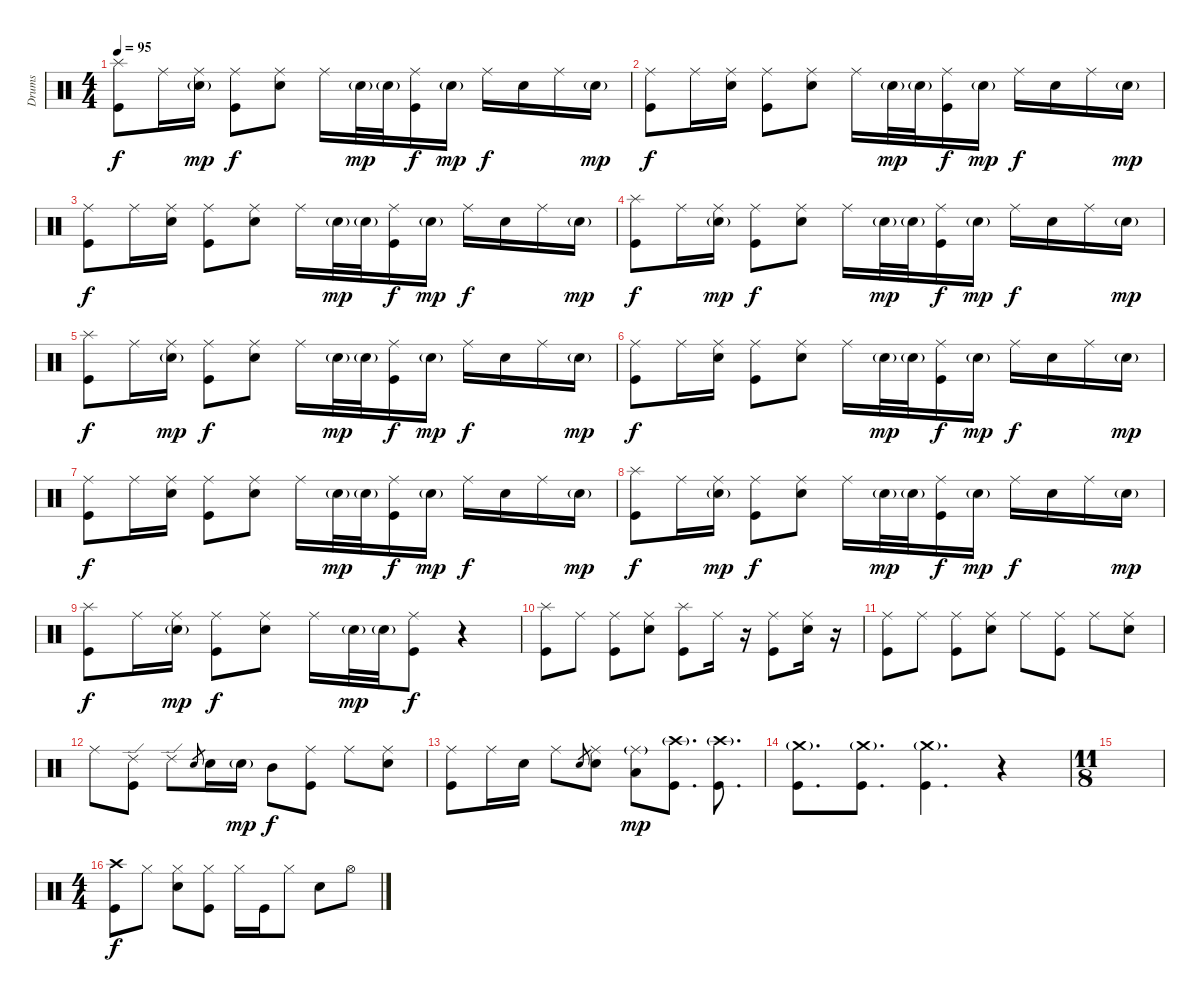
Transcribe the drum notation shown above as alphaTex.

\track ("Drums" "Drums") {instrument percussion}
\staff {score}
\articulation defaults
\ts (4 4)
\tempo 95
\clef neutral
\ks c
("Splash (hit)" "Kick (hit)").8{dy f} "Ride (middle)".16 ("Ride (middle)" "Electric Snare (hit)"{g}).16{dy mp} ("Ride (middle)" "Kick (hit)").8{dy f} ("Ride (middle)" "Electric Snare (hit)").8 "Ride (middle)".16 "Electric Snare (hit)"{g}.32{dy mp} "Electric Snare (hit)"{g}.32 ("Ride (middle)" "Kick (hit)").16{dy f} "Electric Snare (hit)"{g}.16{dy mp} "Ride (middle)".16{dy f} "Electric Snare (hit)".16 "Ride (middle)".16 "Electric Snare (hit)"{g}.16{dy mp} |
("Ride (middle)" "Kick (hit)").8{dy f} "Ride (middle)".16 ("Ride (middle)" "Electric Snare (hit)").16 ("Ride (middle)" "Kick (hit)").8 ("Ride (middle)" "Electric Snare (hit)").8 "Ride (middle)".16 "Electric Snare (hit)"{g}.32{dy mp} "Electric Snare (hit)"{g}.32 ("Ride (middle)" "Kick (hit)").16{dy f} "Electric Snare (hit)"{g}.16{dy mp} "Ride (middle)".16{dy f} "Electric Snare (hit)".16 "Ride (middle)".16 "Electric Snare (hit)"{g}.16{dy mp} |
("Ride (middle)" "Kick (hit)").8{dy f} "Ride (middle)".16 ("Ride (middle)" "Electric Snare (hit)").16 ("Ride (middle)" "Kick (hit)").8 ("Ride (middle)" "Electric Snare (hit)").8 "Ride (middle)".16 "Electric Snare (hit)"{g}.32{dy mp} "Electric Snare (hit)"{g}.32 ("Ride (middle)" "Kick (hit)").16{dy f} "Electric Snare (hit)"{g}.16{dy mp} "Ride (middle)".16{dy f} "Electric Snare (hit)".16 "Ride (middle)".16 "Electric Snare (hit)"{g}.16{dy mp} |
("Splash (hit)" "Kick (hit)").8{dy f} "Ride (middle)".16 ("Ride (middle)" "Electric Snare (hit)"{g}).16{dy mp} ("Ride (middle)" "Kick (hit)").8{dy f} ("Ride (middle)" "Electric Snare (hit)").8 "Ride (middle)".16 "Electric Snare (hit)"{g}.32{dy mp} "Electric Snare (hit)"{g}.32 ("Ride (middle)" "Kick (hit)").16{dy f} "Electric Snare (hit)"{g}.16{dy mp} "Ride (middle)".16{dy f} "Electric Snare (hit)".16 "Ride (middle)".16 "Electric Snare (hit)"{g}.16{dy mp} |
("Splash (hit)" "Kick (hit)").8{dy f} "Ride (middle)".16 ("Ride (middle)" "Electric Snare (hit)"{g}).16{dy mp} ("Ride (middle)" "Kick (hit)").8{dy f} ("Ride (middle)" "Electric Snare (hit)").8 "Ride (middle)".16 "Electric Snare (hit)"{g}.32{dy mp} "Electric Snare (hit)"{g}.32 ("Ride (middle)" "Kick (hit)").16{dy f} "Electric Snare (hit)"{g}.16{dy mp} "Ride (middle)".16{dy f} "Electric Snare (hit)".16 "Ride (middle)".16 "Electric Snare (hit)"{g}.16{dy mp} |
("Ride (middle)" "Kick (hit)").8{dy f} "Ride (middle)".16 ("Ride (middle)" "Electric Snare (hit)").16 ("Ride (middle)" "Kick (hit)").8 ("Ride (middle)" "Electric Snare (hit)").8 "Ride (middle)".16 "Electric Snare (hit)"{g}.32{dy mp} "Electric Snare (hit)"{g}.32 ("Ride (middle)" "Kick (hit)").16{dy f} "Electric Snare (hit)"{g}.16{dy mp} "Ride (middle)".16{dy f} "Electric Snare (hit)".16 "Ride (middle)".16 "Electric Snare (hit)"{g}.16{dy mp} |
("Ride (middle)" "Kick (hit)").8{dy f} "Ride (middle)".16 ("Ride (middle)" "Electric Snare (hit)").16 ("Ride (middle)" "Kick (hit)").8 ("Ride (middle)" "Electric Snare (hit)").8 "Ride (middle)".16 "Electric Snare (hit)"{g}.32{dy mp} "Electric Snare (hit)"{g}.32 ("Ride (middle)" "Kick (hit)").16{dy f} "Electric Snare (hit)"{g}.16{dy mp} "Ride (middle)".16{dy f} "Electric Snare (hit)".16 "Ride (middle)".16 "Electric Snare (hit)"{g}.16{dy mp} |
("Splash (hit)" "Kick (hit)").8{dy f} "Ride (middle)".16 ("Ride (middle)" "Electric Snare (hit)"{g}).16{dy mp} ("Ride (middle)" "Kick (hit)").8{dy f} ("Ride (middle)" "Electric Snare (hit)").8 "Ride (middle)".16 "Electric Snare (hit)"{g}.32{dy mp} "Electric Snare (hit)"{g}.32 ("Ride (middle)" "Kick (hit)").16{dy f} "Electric Snare (hit)"{g}.16{dy mp} "Ride (middle)".16{dy f} "Electric Snare (hit)".16 "Ride (middle)".16 "Electric Snare (hit)"{g}.16{dy mp} |
("Splash (hit)" "Kick (hit)").8{dy f} "Ride (middle)".16 ("Ride (middle)" "Electric Snare (hit)"{g}).16{dy mp} ("Ride (middle)" "Kick (hit)").8{dy f} ("Ride (middle)" "Electric Snare (hit)").8 "Ride (middle)".16 "Electric Snare (hit)"{g}.32{dy mp} "Electric Snare (hit)"{g}.32 ("Ride (middle)" "Kick (hit)").8{dy f} r.4 |
("Splash (hit)" "Kick (hit)").8 "Ride (middle)".8 ("Ride (middle)" "Kick (hit)").8 ("Ride (middle)" "Electric Snare (hit)").8 ("Splash (hit)" "Kick (hit)").8 "Ride (middle)".16 r.16 ("Ride (middle)" "Kick (hit)").8 ("Ride (middle)" "Electric Snare (hit)").16 r.16 |
("Ride (middle)" "Kick (hit)").8 "Ride (middle)".8 ("Ride (middle)" "Kick (hit)").8 ("Ride (middle)" "Electric Snare (hit)").8 "Ride (middle)".8 ("Ride (middle)" "Kick (hit)").8 "Ride (middle)".8 ("Ride (middle)" "Electric Snare (hit)").8 |
"Ride (middle)".8 ("Ride (edge) 2" "Kick (hit)").8 "Ride (edge) 2".8 "Electric Snare (hit)".8{gr} "Electric Snare (hit)".16 "Electric Snare (hit)"{g}.16{dy mp} "Mid Tom (hit)".8{dy f} ("Ride (middle)" "Kick (hit)").8 "Ride (middle)".8 ("Ride (middle)" "Electric Snare (hit)").8 |
("Ride (middle)" "Kick (hit)").8 "Ride (middle)".16 "Electric Snare (hit)".16 "Ride (middle)".8 "Electric Snare (hit)".8{gr} ("Ride (middle)" "Electric Snare (hit)").8 ("Ride (middle)"{g} "Low Floor Tom (hit)").8{dy mp} ("Crash high (hit)"{g} "Kick (hit)").8{d} ("Crash high (hit)"{g} "Kick (hit)").8{d} |
("Crash medium (hit)"{g} "Kick (hit)").8{d} ("Crash medium (hit)"{g} "Kick (hit)").8{d} ("Crash medium (hit)"{g} "Kick (hit)").4{d} r.4 |
\ts (11 8)
|
\ts (4 4)
("Crash high (hit)" "Kick (hit)").8{dy f} "Hi-Hat (closed)".8 ("Hi-Hat (closed)" "Electric Snare (hit)").8 ("Hi-Hat (closed)" "Kick (hit)").8 "Hi-Hat (closed)".16 "Kick (hit)".16 "Hi-Hat (closed)".8 "Electric Snare (hit)".8 "Hi-Hat (open)".8
